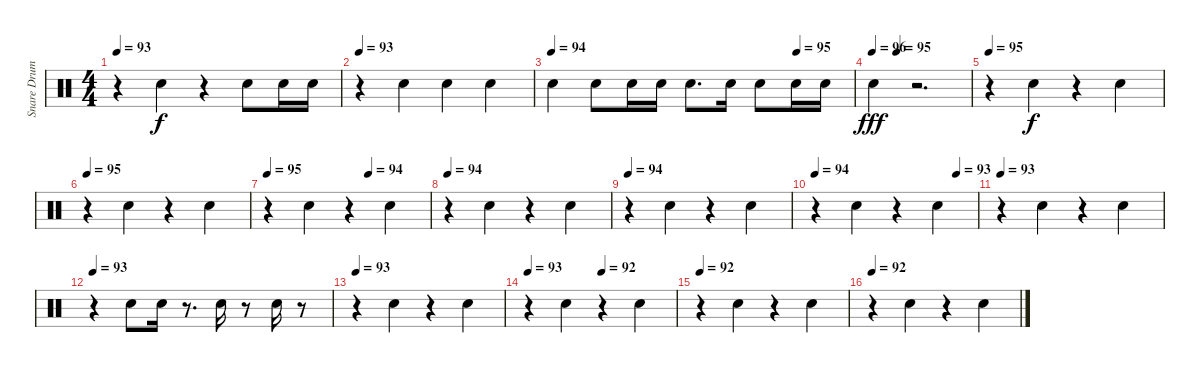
\track ("Snare Drums" "Snare Drum") {instrument percussion}
\staff {score}
\articulation defaults
\ts (4 4)
\tempo 93
\clef neutral
\ks c
r.4{dy f} "Snare (hit) 2".4 r.4 "Electric Snare (hit)".8 "Electric Snare (hit)".16 "Electric Snare (hit)".16 |
\tempo 93
r.4 "Snare (hit) 2".4 "Snare (hit) 2".4 "Snare (hit) 2".4 |
\tempo 94
\tempo (95 0.8125)
"Electric Snare (hit)".4 "Electric Snare (hit)".8 "Electric Snare (hit)".16 "Electric Snare (hit)".16 "Electric Snare (hit)".8{d} "Electric Snare (hit)".16 "Electric Snare (hit)".8 "Electric Snare (hit)".16 "Electric Snare (hit)".16 |
\tempo 96
\tempo (95 0.25)
"Electric Snare (hit)".4{dy fff} r.2{d} |
\tempo 95
r.4 "Electric Snare (hit)".4{dy f} r.4 "Electric Snare (hit)".4 |
\tempo 95
r.4 "Electric Snare (hit)".4 r.4 "Electric Snare (hit)".4 |
\tempo 95
\tempo (94 0.625)
r.4 "Electric Snare (hit)".4 r.4 "Electric Snare (hit)".4 |
\tempo 94
r.4 "Electric Snare (hit)".4 r.4 "Electric Snare (hit)".4 |
\tempo 94
r.4 "Electric Snare (hit)".4 r.4 "Electric Snare (hit)".4 |
\tempo 94
\tempo (93 0.875)
r.4 "Electric Snare (hit)".4 r.4 "Electric Snare (hit)".4 |
\tempo 93
r.4 "Electric Snare (hit)".4 r.4 "Electric Snare (hit)".4 |
\tempo 93
r.4 "Electric Snare (hit)".8 "Electric Snare (hit)".16 r.8{d} "Electric Snare (hit)".16 r.8 "Electric Snare (hit)".16 r.8 |
\tempo 93
r.4 "Electric Snare (hit)".4 r.4 "Electric Snare (hit)".4 |
\tempo 93
\tempo (92 0.5)
r.4 "Electric Snare (hit)".4 r.4 "Electric Snare (hit)".4 |
\tempo 92
r.4 "Electric Snare (hit)".4 r.4 "Electric Snare (hit)".4 |
\tempo 92
r.4 "Electric Snare (hit)".4 r.4 "Electric Snare (hit)".4
